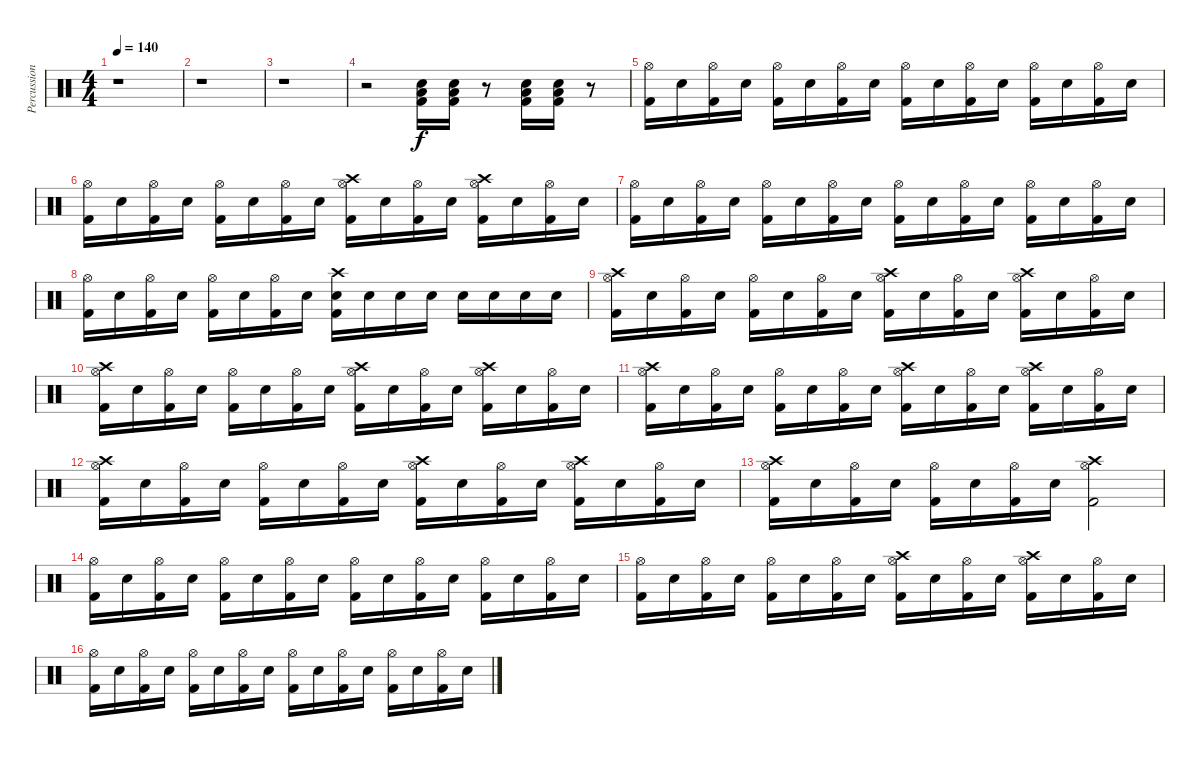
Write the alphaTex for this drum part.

\track ("Percussions" "Percussion") {instrument percussion}
\staff {score}
\articulation defaults
\ts (4 4)
\tempo 140
\clef neutral
\ks c
r.1{dy f} |
r.1 |
r.1 |
r.2 ("Low Floor Tom (hit)" "Kick (hit) 2" "Electric Snare (hit)").16 ("Low Floor Tom (hit)" "Kick (hit) 2" "Electric Snare (hit)").16 r.8 ("Low Floor Tom (hit)" "Kick (hit) 2" "Electric Snare (hit)").16 ("Low Floor Tom (hit)" "Kick (hit) 2" "Electric Snare (hit)").16 r.8 |
("Kick (hit) 2" "Hi-Hat (open)").16 "Electric Snare (hit)".16 ("Kick (hit) 2" "Hi-Hat (open)").16 "Electric Snare (hit)".16 ("Kick (hit) 2" "Hi-Hat (open)").16 "Electric Snare (hit)".16 ("Kick (hit) 2" "Hi-Hat (open)").16 "Electric Snare (hit)".16 ("Kick (hit) 2" "Hi-Hat (open)").16 "Electric Snare (hit)".16 ("Kick (hit) 2" "Hi-Hat (open)").16 "Electric Snare (hit)".16 ("Kick (hit) 2" "Hi-Hat (open)").16 "Electric Snare (hit)".16 ("Kick (hit) 2" "Hi-Hat (open)").16 "Electric Snare (hit)".16 |
("Kick (hit) 2" "Hi-Hat (open)").16 "Electric Snare (hit)".16 ("Kick (hit) 2" "Hi-Hat (open)").16 "Electric Snare (hit)".16 ("Kick (hit) 2" "Hi-Hat (open)").16 "Electric Snare (hit)".16 ("Kick (hit) 2" "Hi-Hat (open)").16 "Electric Snare (hit)".16 ("Crash high (hit)" "Kick (hit) 2" "Hi-Hat (open)").16 "Electric Snare (hit)".16 ("Kick (hit) 2" "Hi-Hat (open)").16 "Electric Snare (hit)".16 ("Crash high (hit)" "Kick (hit) 2" "Hi-Hat (open)").16 "Electric Snare (hit)".16 ("Kick (hit) 2" "Hi-Hat (open)").16 "Electric Snare (hit)".16 |
("Kick (hit) 2" "Hi-Hat (open)").16 "Electric Snare (hit)".16 ("Kick (hit) 2" "Hi-Hat (open)").16 "Electric Snare (hit)".16 ("Kick (hit) 2" "Hi-Hat (open)").16 "Electric Snare (hit)".16 ("Kick (hit) 2" "Hi-Hat (open)").16 "Electric Snare (hit)".16 ("Kick (hit) 2" "Hi-Hat (open)").16 "Electric Snare (hit)".16 ("Kick (hit) 2" "Hi-Hat (open)").16 "Electric Snare (hit)".16 ("Kick (hit) 2" "Hi-Hat (open)").16 "Electric Snare (hit)".16 ("Kick (hit) 2" "Hi-Hat (open)").16 "Electric Snare (hit)".16 |
("Kick (hit) 2" "Hi-Hat (open)").16 "Electric Snare (hit)".16 ("Kick (hit) 2" "Hi-Hat (open)").16 "Electric Snare (hit)".16 ("Kick (hit) 2" "Hi-Hat (open)").16 "Electric Snare (hit)".16 ("Kick (hit) 2" "Hi-Hat (open)").16 "Electric Snare (hit)".16 ("Crash high (hit)" "Kick (hit) 2" "Electric Snare (hit)").16 "Electric Snare (hit)".16 "Electric Snare (hit)".16 "Electric Snare (hit)".16 "Electric Snare (hit)".16 "Electric Snare (hit)".16 "Electric Snare (hit)".16 "Electric Snare (hit)".16 |
("Crash high (hit)" "Kick (hit) 2" "Hi-Hat (open)").16 "Electric Snare (hit)".16 ("Kick (hit) 2" "Hi-Hat (open)").16 "Electric Snare (hit)".16 ("Kick (hit) 2" "Hi-Hat (open)").16 "Electric Snare (hit)".16 ("Kick (hit) 2" "Hi-Hat (open)").16 "Electric Snare (hit)".16 ("Crash high (hit)" "Kick (hit) 2" "Hi-Hat (open)").16 "Electric Snare (hit)".16 ("Kick (hit) 2" "Hi-Hat (open)").16 "Electric Snare (hit)".16 ("Crash high (hit)" "Kick (hit) 2" "Hi-Hat (open)").16 "Electric Snare (hit)".16 ("Kick (hit) 2" "Hi-Hat (open)").16 "Electric Snare (hit)".16 |
("Crash high (hit)" "Kick (hit) 2" "Hi-Hat (open)").16 "Electric Snare (hit)".16 ("Kick (hit) 2" "Hi-Hat (open)").16 "Electric Snare (hit)".16 ("Kick (hit) 2" "Hi-Hat (open)").16 "Electric Snare (hit)".16 ("Kick (hit) 2" "Hi-Hat (open)").16 "Electric Snare (hit)".16 ("Crash high (hit)" "Kick (hit) 2" "Hi-Hat (open)").16 "Electric Snare (hit)".16 ("Kick (hit) 2" "Hi-Hat (open)").16 "Electric Snare (hit)".16 ("Crash high (hit)" "Kick (hit) 2" "Hi-Hat (open)").16 "Electric Snare (hit)".16 ("Kick (hit) 2" "Hi-Hat (open)").16 "Electric Snare (hit)".16 |
("Crash high (hit)" "Kick (hit) 2" "Hi-Hat (open)").16 "Electric Snare (hit)".16 ("Kick (hit) 2" "Hi-Hat (open)").16 "Electric Snare (hit)".16 ("Kick (hit) 2" "Hi-Hat (open)").16 "Electric Snare (hit)".16 ("Kick (hit) 2" "Hi-Hat (open)").16 "Electric Snare (hit)".16 ("Crash high (hit)" "Kick (hit) 2" "Hi-Hat (open)").16 "Electric Snare (hit)".16 ("Kick (hit) 2" "Hi-Hat (open)").16 "Electric Snare (hit)".16 ("Crash high (hit)" "Kick (hit) 2" "Hi-Hat (open)").16 "Electric Snare (hit)".16 ("Kick (hit) 2" "Hi-Hat (open)").16 "Electric Snare (hit)".16 |
("Crash high (hit)" "Kick (hit) 2" "Hi-Hat (open)").16 "Electric Snare (hit)".16 ("Kick (hit) 2" "Hi-Hat (open)").16 "Electric Snare (hit)".16 ("Kick (hit) 2" "Hi-Hat (open)").16 "Electric Snare (hit)".16 ("Kick (hit) 2" "Hi-Hat (open)").16 "Electric Snare (hit)".16 ("Crash high (hit)" "Kick (hit) 2" "Hi-Hat (open)").16 "Electric Snare (hit)".16 ("Kick (hit) 2" "Hi-Hat (open)").16 "Electric Snare (hit)".16 ("Crash high (hit)" "Kick (hit) 2" "Hi-Hat (open)").16 "Electric Snare (hit)".16 ("Kick (hit) 2" "Hi-Hat (open)").16 "Electric Snare (hit)".16 |
("Crash high (hit)" "Kick (hit) 2" "Hi-Hat (open)").16 "Electric Snare (hit)".16 ("Kick (hit) 2" "Hi-Hat (open)").16 "Electric Snare (hit)".16 ("Kick (hit) 2" "Hi-Hat (open)").16 "Electric Snare (hit)".16 ("Kick (hit) 2" "Hi-Hat (open)").16 "Electric Snare (hit)".16 ("Crash high (hit)" "Kick (hit) 2" "Hi-Hat (open)").2 |
("Kick (hit) 2" "Hi-Hat (open)").16 "Electric Snare (hit)".16 ("Kick (hit) 2" "Hi-Hat (open)").16 "Electric Snare (hit)".16 ("Kick (hit) 2" "Hi-Hat (open)").16 "Electric Snare (hit)".16 ("Kick (hit) 2" "Hi-Hat (open)").16 "Electric Snare (hit)".16 ("Kick (hit) 2" "Hi-Hat (open)").16 "Electric Snare (hit)".16 ("Kick (hit) 2" "Hi-Hat (open)").16 "Electric Snare (hit)".16 ("Kick (hit) 2" "Hi-Hat (open)").16 "Electric Snare (hit)".16 ("Kick (hit) 2" "Hi-Hat (open)").16 "Electric Snare (hit)".16 |
("Kick (hit) 2" "Hi-Hat (open)").16 "Electric Snare (hit)".16 ("Kick (hit) 2" "Hi-Hat (open)").16 "Electric Snare (hit)".16 ("Kick (hit) 2" "Hi-Hat (open)").16 "Electric Snare (hit)".16 ("Kick (hit) 2" "Hi-Hat (open)").16 "Electric Snare (hit)".16 ("Crash high (hit)" "Kick (hit) 2" "Hi-Hat (open)").16 "Electric Snare (hit)".16 ("Kick (hit) 2" "Hi-Hat (open)").16 "Electric Snare (hit)".16 ("Crash high (hit)" "Kick (hit) 2" "Hi-Hat (open)").16 "Electric Snare (hit)".16 ("Kick (hit) 2" "Hi-Hat (open)").16 "Electric Snare (hit)".16 |
("Kick (hit) 2" "Hi-Hat (open)").16 "Electric Snare (hit)".16 ("Kick (hit) 2" "Hi-Hat (open)").16 "Electric Snare (hit)".16 ("Kick (hit) 2" "Hi-Hat (open)").16 "Electric Snare (hit)".16 ("Kick (hit) 2" "Hi-Hat (open)").16 "Electric Snare (hit)".16 ("Kick (hit) 2" "Hi-Hat (open)").16 "Electric Snare (hit)".16 ("Kick (hit) 2" "Hi-Hat (open)").16 "Electric Snare (hit)".16 ("Kick (hit) 2" "Hi-Hat (open)").16 "Electric Snare (hit)".16 ("Kick (hit) 2" "Hi-Hat (open)").16 "Electric Snare (hit)".16
